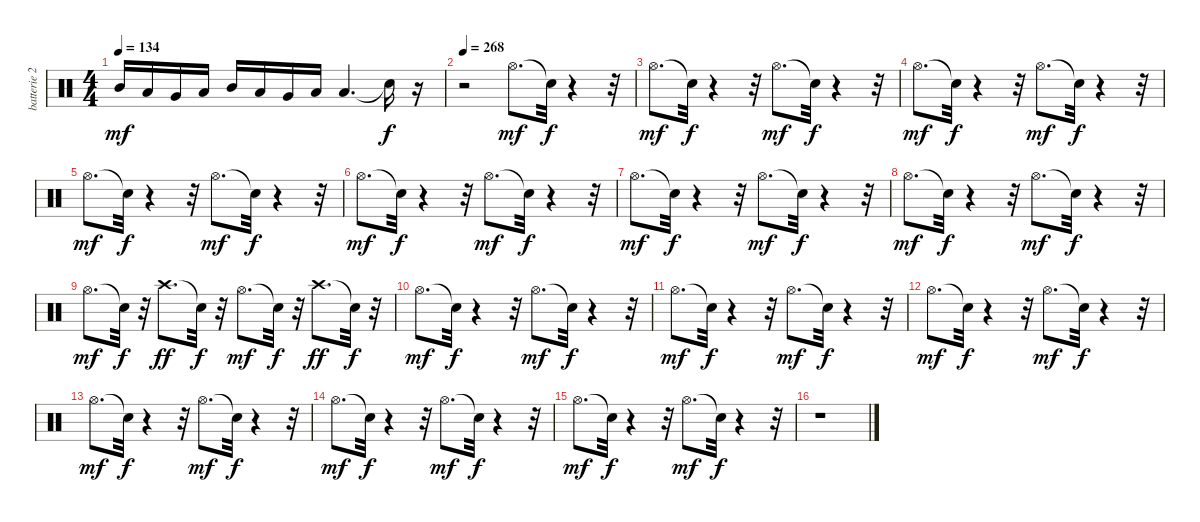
\track ("batterie 2" "batterie 2") {instrument percussion}
\staff {score}
\articulation defaults
\ts (4 4)
\tempo 134
\clef neutral
\ks c "Mid Tom (hit)".16{dy mf} "Low Tom (hit)".16 "Very Low Tom (hit)".16 "Low Floor Tom (hit)".16 "Mid Tom (hit)".16 "Low Tom (hit)".16 "Very Low Tom (hit)".16 "Low Floor Tom (hit)".16 "Low Floor Tom (hit)".4{d} "Snare (hit)"{t}.16{dy f}
r.16 |
\tempo 268
r.2 "Hi-Hat (open)".8{d dy mf} "Snare (hit)"{t}.32{dy f} r.4 r.32 |
"Hi-Hat (open)".8{d dy mf} "Snare (hit)"{t}.32{dy f} r.4 r.32 "Hi-Hat (open)".8{d dy mf} "Snare (hit)"{t}.32{dy f} r.4 r.32 |
"Hi-Hat (open)".8{d dy mf} "Snare (hit)"{t}.32{dy f} r.4 r.32 "Hi-Hat (open)".8{d dy mf} "Snare (hit)"{t}.32{dy f} r.4 r.32 |
"Hi-Hat (open)".8{d dy mf} "Snare (hit)"{t}.32{dy f} r.4 r.32 "Hi-Hat (open)".8{d dy mf} "Snare (hit)"{t}.32{dy f} r.4 r.32 |
"Hi-Hat (open)".8{d dy mf} "Snare (hit)"{t}.32{dy f} r.4 r.32 "Hi-Hat (open)".8{d dy mf} "Snare (hit)"{t}.32{dy f} r.4 r.32 |
"Hi-Hat (open)".8{d dy mf} "Snare (hit)"{t}.32{dy f} r.4 r.32 "Hi-Hat (open)".8{d dy mf} "Snare (hit)"{t}.32{dy f} r.4 r.32 |
"Hi-Hat (open)".8{d dy mf} "Snare (hit)"{t}.32{dy f} r.4 r.32 "Hi-Hat (open)".8{d dy mf} "Snare (hit)"{t}.32{dy f} r.4 r.32 |
"Hi-Hat (open)".8{d dy mf} "Snare (hit)"{t}.32{dy f} r.32 "Crash high (hit)".8{d dy ff} "Snare (hit)"{t}.32{dy f} r.32 "Hi-Hat (open)".8{d dy mf} "Snare (hit)"{t}.32{dy f} r.32 "Crash high (hit)".8{d dy ff} "Snare (hit)"{t}.32{dy f} r.32 |
"Hi-Hat (open)".8{d dy mf} "Snare (hit)"{t}.32{dy f} r.4 r.32 "Hi-Hat (open)".8{d dy mf} "Snare (hit)"{t}.32{dy f} r.4 r.32 |
"Hi-Hat (open)".8{d dy mf} "Snare (hit)"{t}.32{dy f} r.4 r.32 "Hi-Hat (open)".8{d dy mf} "Snare (hit)"{t}.32{dy f} r.4 r.32 |
"Hi-Hat (open)".8{d dy mf} "Snare (hit)"{t}.32{dy f} r.4 r.32 "Hi-Hat (open)".8{d dy mf} "Snare (hit)"{t}.32{dy f} r.4 r.32 |
"Hi-Hat (open)".8{d dy mf} "Snare (hit)"{t}.32{dy f} r.4 r.32 "Hi-Hat (open)".8{d dy mf} "Snare (hit)"{t}.32{dy f} r.4 r.32 |
"Hi-Hat (open)".8{d dy mf} "Snare (hit)"{t}.32{dy f} r.4 r.32 "Hi-Hat (open)".8{d dy mf} "Snare (hit)"{t}.32{dy f} r.4 r.32 |
"Hi-Hat (open)".8{d dy mf} "Snare (hit)"{t}.32{dy f} r.4 r.32 "Hi-Hat (open)".8{d dy mf} "Snare (hit)"{t}.32{dy f} r.4 r.32 |
r.1
